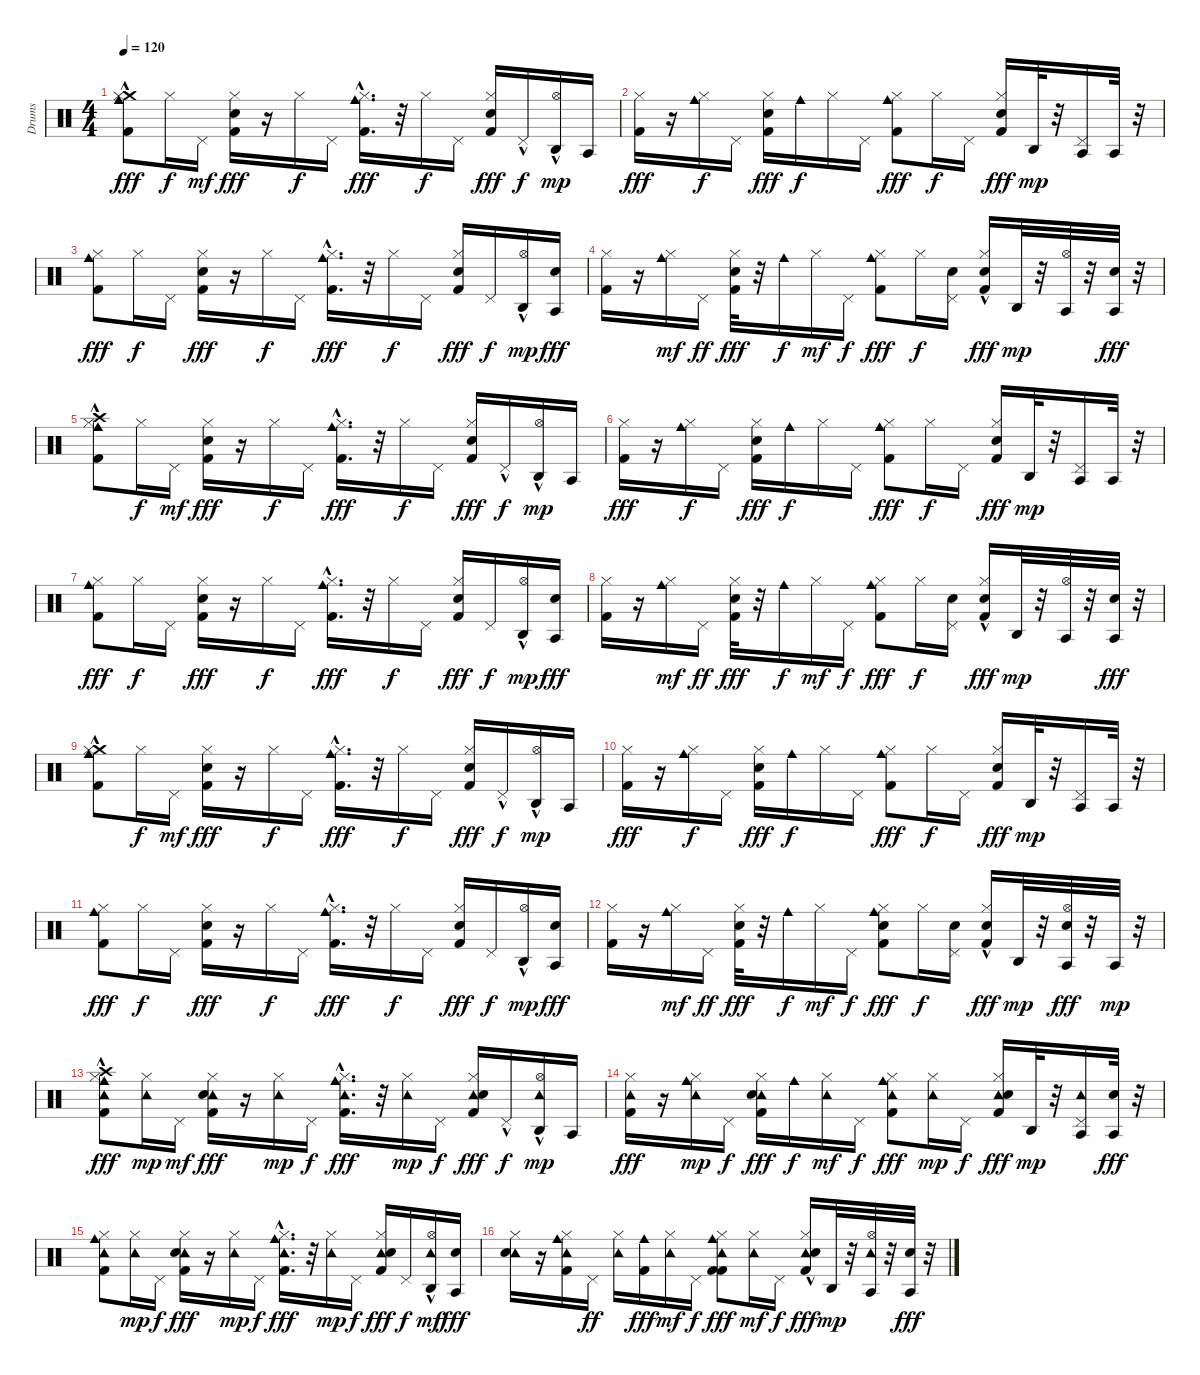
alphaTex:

\track ("Drums" "Drums") {instrument percussion}
\staff {score}
\articulation defaults
\ts (4 4)
\tempo 120
\clef neutral
\ks c
("Cowbell medium (hit)" "Crash medium (hit)"{hac} "Hi-Hat (closed)" "Kick (hit) 2").8{dy fff} "Hi-Hat (closed)".16{dy f} "Pedal Hi-Hat (hit)".16{dy mf} ("Electric Snare (hit)" "Kick (hit) 2" "Hi-Hat (closed)").16{dy fff} r.16 "Hi-Hat (closed)".16{dy f} "Pedal Hi-Hat (hit)".16 ("Cowbell medium (hit)"{hac} "Kick (hit) 2" "Hi-Hat (closed)").16{d dy fff} r.32 "Hi-Hat (closed)".16{dy f} "Pedal Hi-Hat (hit)".16 ("Kick (hit) 2" "Electric Snare (hit)" "Hi-Hat (closed)").16{dy fff} "Pedal Hi-Hat (hit)"{hac}.16{dy f} ("Agogo high (hit)" "Hi-Hat (open)"{hac}).16{dy mp} "Agogo tow (hit)".16 |
("Kick (hit) 2" "Hi-Hat (closed)").16{dy fff} r.16 ("Cowbell medium (hit)" "Hi-Hat (closed)").16{dy f} "Pedal Hi-Hat (hit)".16 ("Hi-Hat (closed)" "Kick (hit) 2" "Electric Snare (hit)").16{dy fff} "Cowbell medium (hit)".16{dy f} "Hi-Hat (closed)".16 "Pedal Hi-Hat (hit)".16 ("Cowbell medium (hit)" "Kick (hit) 2" "Hi-Hat (closed)").8{dy fff} "Hi-Hat (closed)".16{dy f} "Pedal Hi-Hat (hit)".16 ("Electric Snare (hit)" "Kick (hit) 2" "Hi-Hat (closed)").16{dy fff} "Agogo high (hit)".32{dy mp} r.32 ("Agogo tow (hit)" "Pedal Hi-Hat (hit)").16 "Agogo tow (hit)".32 r.32 |
("Cowbell medium (hit)" "Kick (hit) 2" "Hi-Hat (closed)").8{dy fff} "Hi-Hat (closed)".16{dy f} "Pedal Hi-Hat (hit)".16 ("Electric Snare (hit)" "Kick (hit) 2" "Hi-Hat (closed)").16{dy fff} r.16 "Hi-Hat (closed)".16{dy f} "Pedal Hi-Hat (hit)".16 ("Cowbell medium (hit)"{hac} "Hi-Hat (closed)" "Kick (hit) 2").16{d dy fff} r.32 "Hi-Hat (closed)".16{dy f} "Pedal Hi-Hat (hit)".16 ("Kick (hit) 2" "Electric Snare (hit)" "Hi-Hat (closed)").16{dy fff} "Pedal Hi-Hat (hit)".16{dy f} ("Agogo high (hit)" "Hi-Hat (open)"{hac}).16{dy mp} ("Agogo tow (hit)" "Electric Snare (hit)").16{dy fff} |
("Kick (hit) 2" "Hi-Hat (closed)").16 r.16 ("Cowbell medium (hit)" "Hi-Hat (closed)").16{dy mf} "Pedal Hi-Hat (hit)".16{dy ff} ("Electric Snare (hit)" "Kick (hit) 2" "Hi-Hat (closed)").32{dy fff} r.32 "Cowbell medium (hit)".16{dy f} "Hi-Hat (closed)".16{dy mf} "Pedal Hi-Hat (hit)".16{dy f} ("Cowbell medium (hit)" "Hi-Hat (closed)" "Kick (hit) 2").8{dy fff} "Hi-Hat (closed)".16{dy f} ("Pedal Hi-Hat (hit)" "Electric Snare (hit)").16 ("Hi-Hat (closed)" "Kick (hit) 2"{hac} "Electric Snare (hit)").16{dy fff} "Agogo high (hit)".32{dy mp} r.32 ("Agogo tow (hit)" "Hi-Hat (open)").32 r.32 ("Agogo tow (hit)" "Electric Snare (hit)").32{dy fff} r.32 |
("Cowbell medium (hit)" "Crash high (hit)"{hac} "Hi-Hat (closed)" "Kick (hit) 2").8 "Hi-Hat (closed)".16{dy f} "Pedal Hi-Hat (hit)".16{dy mf} ("Electric Snare (hit)" "Kick (hit) 2" "Hi-Hat (closed)").16{dy fff} r.16 "Hi-Hat (closed)".16{dy f} "Pedal Hi-Hat (hit)".16 ("Cowbell medium (hit)"{hac} "Kick (hit) 2" "Hi-Hat (closed)").16{d dy fff} r.32 "Hi-Hat (closed)".16{dy f} "Pedal Hi-Hat (hit)".16 ("Kick (hit) 2" "Electric Snare (hit)" "Hi-Hat (closed)").16{dy fff} "Pedal Hi-Hat (hit)"{hac}.16{dy f} ("Agogo high (hit)" "Hi-Hat (open)"{hac}).16{dy mp} "Agogo tow (hit)".16 |
("Kick (hit) 2" "Hi-Hat (closed)").16{dy fff} r.16 ("Cowbell medium (hit)" "Hi-Hat (closed)").16{dy f} "Pedal Hi-Hat (hit)".16 ("Hi-Hat (closed)" "Kick (hit) 2" "Electric Snare (hit)").16{dy fff} "Cowbell medium (hit)".16{dy f} "Hi-Hat (closed)".16 "Pedal Hi-Hat (hit)".16 ("Cowbell medium (hit)" "Kick (hit) 2" "Hi-Hat (closed)").8{dy fff} "Hi-Hat (closed)".16{dy f} "Pedal Hi-Hat (hit)".16 ("Electric Snare (hit)" "Kick (hit) 2" "Hi-Hat (closed)").16{dy fff} "Agogo high (hit)".32{dy mp} r.32 ("Agogo tow (hit)" "Pedal Hi-Hat (hit)").16 "Agogo tow (hit)".32 r.32 |
("Cowbell medium (hit)" "Kick (hit) 2" "Hi-Hat (closed)").8{dy fff} "Hi-Hat (closed)".16{dy f} "Pedal Hi-Hat (hit)".16 ("Electric Snare (hit)" "Kick (hit) 2" "Hi-Hat (closed)").16{dy fff} r.16 "Hi-Hat (closed)".16{dy f} "Pedal Hi-Hat (hit)".16 ("Cowbell medium (hit)"{hac} "Hi-Hat (closed)" "Kick (hit) 2").16{d dy fff} r.32 "Hi-Hat (closed)".16{dy f} "Pedal Hi-Hat (hit)".16 ("Kick (hit) 2" "Electric Snare (hit)" "Hi-Hat (closed)").16{dy fff} "Pedal Hi-Hat (hit)".16{dy f} ("Agogo high (hit)" "Hi-Hat (open)"{hac}).16{dy mp} ("Agogo tow (hit)" "Electric Snare (hit)").16{dy fff} |
("Kick (hit) 2" "Hi-Hat (closed)").16 r.16 ("Cowbell medium (hit)" "Hi-Hat (closed)").16{dy mf} "Pedal Hi-Hat (hit)".16{dy ff} ("Electric Snare (hit)" "Kick (hit) 2" "Hi-Hat (closed)").32{dy fff} r.32 "Cowbell medium (hit)".16{dy f} "Hi-Hat (closed)".16{dy mf} "Pedal Hi-Hat (hit)".16{dy f} ("Cowbell medium (hit)" "Hi-Hat (closed)" "Kick (hit) 2").8{dy fff} "Hi-Hat (closed)".16{dy f} ("Pedal Hi-Hat (hit)" "Electric Snare (hit)").16 ("Hi-Hat (closed)" "Kick (hit) 2"{hac} "Electric Snare (hit)").16{dy fff} "Agogo high (hit)".32{dy mp} r.32 ("Agogo tow (hit)" "Hi-Hat (open)").32 r.32 ("Agogo tow (hit)" "Electric Snare (hit)").32{dy fff} r.32 |
("Cowbell medium (hit)" "Crash medium (hit)"{hac} "Hi-Hat (closed)" "Kick (hit) 2").8 "Hi-Hat (closed)".16{dy f} "Pedal Hi-Hat (hit)".16{dy mf} ("Electric Snare (hit)" "Kick (hit) 2" "Hi-Hat (closed)").16{dy fff} r.16 "Hi-Hat (closed)".16{dy f} "Pedal Hi-Hat (hit)".16 ("Cowbell medium (hit)"{hac} "Kick (hit) 2" "Hi-Hat (closed)").16{d dy fff} r.32 "Hi-Hat (closed)".16{dy f} "Pedal Hi-Hat (hit)".16 ("Kick (hit) 2" "Electric Snare (hit)" "Hi-Hat (closed)").16{dy fff} "Pedal Hi-Hat (hit)"{hac}.16{dy f} ("Agogo high (hit)" "Hi-Hat (open)"{hac}).16{dy mp} "Agogo tow (hit)".16 |
("Kick (hit) 2" "Hi-Hat (closed)").16{dy fff} r.16 ("Cowbell medium (hit)" "Hi-Hat (closed)").16{dy f} "Pedal Hi-Hat (hit)".16 ("Hi-Hat (closed)" "Kick (hit) 2" "Electric Snare (hit)").16{dy fff} "Cowbell medium (hit)".16{dy f} "Hi-Hat (closed)".16 "Pedal Hi-Hat (hit)".16 ("Cowbell medium (hit)" "Kick (hit) 2" "Hi-Hat (closed)").8{dy fff} "Hi-Hat (closed)".16{dy f} "Pedal Hi-Hat (hit)".16 ("Electric Snare (hit)" "Kick (hit) 2" "Hi-Hat (closed)").16{dy fff} "Agogo high (hit)".32{dy mp} r.32 ("Agogo tow (hit)" "Pedal Hi-Hat (hit)").16 "Agogo tow (hit)".32 r.32 |
("Cowbell medium (hit)" "Kick (hit) 2" "Hi-Hat (closed)").8{dy fff} "Hi-Hat (closed)".16{dy f} "Pedal Hi-Hat (hit)".16 ("Electric Snare (hit)" "Kick (hit) 2" "Hi-Hat (closed)").16{dy fff} r.16 "Hi-Hat (closed)".16{dy f} "Pedal Hi-Hat (hit)".16 ("Cowbell medium (hit)"{hac} "Hi-Hat (closed)" "Kick (hit) 2").16{d dy fff} r.32 "Hi-Hat (closed)".16{dy f} "Pedal Hi-Hat (hit)".16 ("Kick (hit) 2" "Electric Snare (hit)" "Hi-Hat (closed)").16{dy fff} "Pedal Hi-Hat (hit)".16{dy f} ("Agogo high (hit)" "Hi-Hat (open)"{hac}).16{dy mp} ("Agogo tow (hit)" "Electric Snare (hit)").16{dy fff} |
("Kick (hit) 2" "Hi-Hat (closed)").16 r.16 ("Cowbell medium (hit)" "Hi-Hat (closed)").16{dy mf} "Pedal Hi-Hat (hit)".16{dy ff} ("Electric Snare (hit)" "Kick (hit) 2" "Hi-Hat (closed)").32{dy fff} r.32 "Cowbell medium (hit)".16{dy f} "Hi-Hat (closed)".16{dy mf} "Pedal Hi-Hat (hit)".16{dy f} ("Cowbell medium (hit)" "Electric Snare (hit)" "Hi-Hat (closed)" "Kick (hit) 2").8{dy fff} "Hi-Hat (closed)".16{dy f} ("Pedal Hi-Hat (hit)" "Electric Snare (hit)").16 ("Hi-Hat (closed)" "Kick (hit) 2"{hac} "Electric Snare (hit)").16{dy fff} "Agogo high (hit)".32{dy mp} r.32 ("Agogo tow (hit)" "Electric Snare (hit)" "Hi-Hat (open)").32{dy fff} r.32 "Agogo tow (hit)".32{dy mp} r.32 |
("Tambourine (hit)" "Cowbell medium (hit)" "Crash high (hit)"{hac} "Hi-Hat (closed)" "Kick (hit) 2").8{dy fff} ("Tambourine (hit)" "Hi-Hat (closed)").16{dy mp} "Pedal Hi-Hat (hit)".16{dy mf} ("Tambourine (hit)" "Electric Snare (hit)" "Kick (hit) 2" "Hi-Hat (closed)").16{dy fff} r.16 ("Tambourine (hit)" "Hi-Hat (closed)").16{dy mp} "Pedal Hi-Hat (hit)".16{dy f} ("Tambourine (hit)" "Cowbell medium (hit)"{hac} "Kick (hit) 2" "Hi-Hat (closed)").16{d dy fff} r.32 ("Tambourine (hit)" "Hi-Hat (closed)").16{dy mp} "Pedal Hi-Hat (hit)".16{dy f} ("Tambourine (hit)" "Kick (hit) 2" "Electric Snare (hit)" "Hi-Hat (closed)").16{dy fff} "Pedal Hi-Hat (hit)"{hac}.16{dy f} ("Agogo high (hit)" "Tambourine (hit)" "Hi-Hat (open)"{hac}).16{dy mp} "Agogo tow (hit)".16 |
("Tambourine (hit)" "Kick (hit) 2" "Hi-Hat (closed)").16{dy fff} r.16 ("Cowbell medium (hit)" "Tambourine (hit)" "Hi-Hat (closed)").16{dy mp} "Pedal Hi-Hat (hit)".16{dy f} ("Tambourine (hit)" "Hi-Hat (closed)" "Kick (hit) 2" "Electric Snare (hit)").16{dy fff} "Cowbell medium (hit)".16{dy f} ("Tambourine (hit)" "Hi-Hat (closed)").16{dy mf} "Pedal Hi-Hat (hit)".16{dy f} ("Cowbell medium (hit)" "Tambourine (hit)" "Kick (hit) 2" "Hi-Hat (closed)").8{dy fff} ("Tambourine (hit)" "Hi-Hat (closed)").16{dy mp} "Pedal Hi-Hat (hit)".16{dy f} ("Tambourine (hit)" "Electric Snare (hit)" "Kick (hit) 2" "Hi-Hat (closed)").16{dy fff} "Agogo high (hit)".32{dy mp} r.32 ("Agogo tow (hit)" "Tambourine (hit)" "Pedal Hi-Hat (hit)").16 ("Agogo tow (hit)" "Electric Snare (hit)").32{dy fff} r.32 |
("Cowbell medium (hit)" "Tambourine (hit)" "Kick (hit) 2" "Hi-Hat (closed)").8 ("Tambourine (hit)" "Hi-Hat (closed)").16{dy mp} "Pedal Hi-Hat (hit)".16{dy f} ("Tambourine (hit)" "Electric Snare (hit)" "Kick (hit) 2" "Hi-Hat (closed)").16{dy fff} r.16 ("Tambourine (hit)" "Hi-Hat (closed)").16{dy mp} "Pedal Hi-Hat (hit)".16{dy f} ("Cowbell medium (hit)"{hac} "Tambourine (hit)" "Hi-Hat (closed)" "Kick (hit) 2").16{d dy fff} r.32 ("Tambourine (hit)" "Hi-Hat (closed)").16{dy mp} "Pedal Hi-Hat (hit)".16{dy f} ("Tambourine (hit)" "Kick (hit) 2" "Electric Snare (hit)" "Hi-Hat (closed)").16{dy fff} "Pedal Hi-Hat (hit)".16{dy f} ("Agogo high (hit)" "Tambourine (hit)" "Hi-Hat (open)"{hac}).16{dy mf} ("Agogo tow (hit)" "Electric Snare (hit)").16{dy fff} |
("Tambourine (hit)" "Electric Snare (hit)" "Hi-Hat (closed)").16 r.16 ("Tambourine (hit)" "Cowbell medium (hit)" "Hi-Hat (closed)" "Kick (hit) 2").16 "Pedal Hi-Hat (hit)".16{dy ff} ("Tambourine (hit)" "Hi-Hat (closed)").16 ("Cowbell medium (hit)" "Kick (hit) 2").16{dy fff} ("Tambourine (hit)" "Hi-Hat (closed)").16{dy mf} "Pedal Hi-Hat (hit)".16{dy f} ("Tambourine (hit)" "Cowbell medium (hit)" "Kick (hit) 2" "Hi-Hat (closed)" "Kick (hit) 2").8{dy fff} ("Tambourine (hit)" "Hi-Hat (closed)").16{dy mf} "Pedal Hi-Hat (hit)".16{dy f} ("Tambourine (hit)" "Hi-Hat (closed)" "Kick (hit) 2"{hac} "Electric Snare (hit)").16{dy fff} "Agogo high (hit)".32{dy mp} r.32 ("Agogo tow (hit)" "Tambourine (hit)" "Hi-Hat (open)").32 r.32 ("Agogo tow (hit)" "Electric Snare (hit)").32{dy fff} r.32
